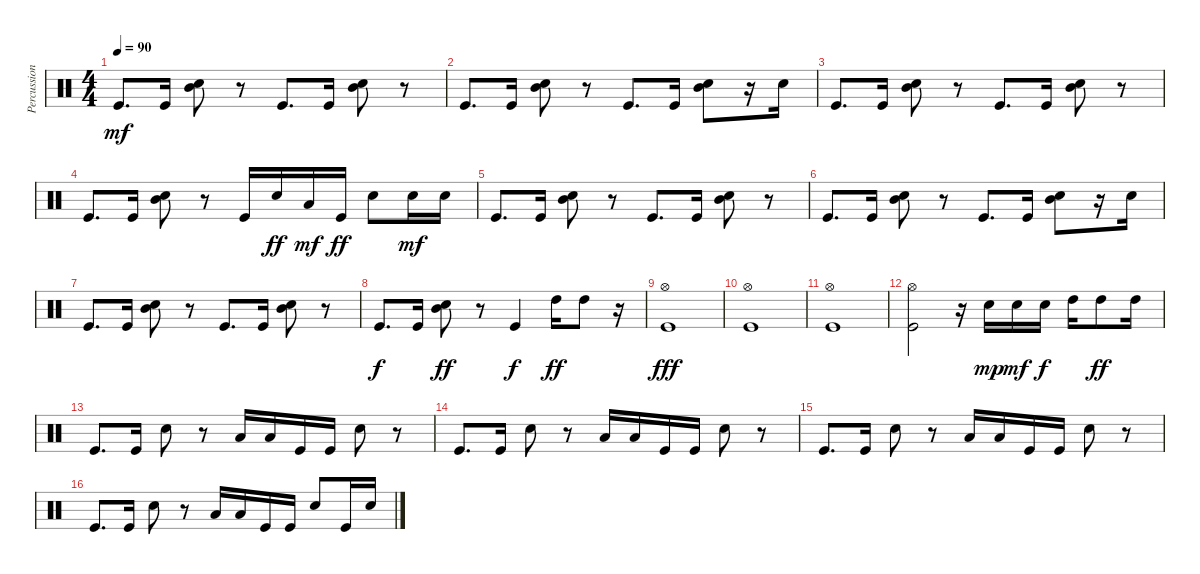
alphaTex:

\track ("Percussion" "Percussion") {instrument percussion}
\staff {score}
\articulation defaults
\ts (4 4)
\tempo 90
\clef neutral
\ks c "Kick (hit)".8{d dy mf} "Kick (hit)".16
("Mid Tom (hit)" "Snare (hit) 2").8 r.8 "Kick (hit)".8{d} "Kick (hit)".16 ("Mid Tom (hit)" "Snare (hit) 2").8 r.8 |
"Kick (hit)".8{d} "Kick (hit)".16 ("Mid Tom (hit)" "Snare (hit) 2").8 r.8 "Kick (hit)".8{d} "Kick (hit)".16 ("Mid Tom (hit)" "Snare (hit) 2").8 r.16 "Snare (hit) 2".16 |
"Kick (hit)".8{d} "Kick (hit)".16 ("Mid Tom (hit)" "Snare (hit) 2").8 r.8 "Kick (hit)".8{d} "Kick (hit)".16 ("Mid Tom (hit)" "Snare (hit) 2").8 r.8 |
"Kick (hit)".8{d} "Kick (hit)".16 ("Mid Tom (hit)" "Snare (hit) 2").8 r.8 "Kick (hit)".16 "Snare (hit) 2".16{dy ff} "Low Floor Tom (hit)".16{dy mf} "Kick (hit)".16{dy ff} "Snare (hit) 2".8 "Snare (hit) 2".16{dy mf} "Snare (hit) 2".16 |
"Kick (hit)".8{d} "Kick (hit)".16 ("Mid Tom (hit)" "Snare (hit) 2").8 r.8 "Kick (hit)".8{d} "Kick (hit)".16 ("Mid Tom (hit)" "Snare (hit) 2").8 r.8 |
"Kick (hit)".8{d} "Kick (hit)".16 ("Mid Tom (hit)" "Snare (hit) 2").8 r.8 "Kick (hit)".8{d} "Kick (hit)".16 ("Mid Tom (hit)" "Snare (hit) 2").8 r.16 "Snare (hit) 2".16 |
"Kick (hit)".8{d} "Kick (hit)".16 ("Mid Tom (hit)" "Snare (hit) 2").8 r.8 "Kick (hit)".8{d} "Kick (hit)".16 ("Mid Tom (hit)" "Snare (hit) 2").8 r.8 |
"Kick (hit)".8{d dy f} "Kick (hit)".16 ("Mid Tom (hit)" "Snare (hit) 2").8{dy ff} r.8 "Kick (hit)".4{dy f} "High Tom (hit)".16{dy ff} "High Tom (hit)".8 r.16 |
("Hi-Hat (open)" "Kick (hit)").1{dy fff} |
("Hi-Hat (open)" "Kick (hit)").1 |
("Hi-Hat (open)" "Kick (hit)").1 |
("Kick (hit)" "Hi-Hat (open)").2 r.16 "Snare (hit) 2".16{dy mp} "Snare (hit) 2".16{dy mf} "Snare (hit) 2".16{dy f} "High Tom (hit)".16 "High Tom (hit)".8{dy ff} "High Tom (hit)".16 |
"Kick (hit)".8{d} "Kick (hit)".16 "Snare (hit) 2".8 r.8 "Low Floor Tom (hit)".16 "Low Floor Tom (hit)".16 "Kick (hit)".16 "Kick (hit)".16 "Snare (hit) 2".8 r.8 |
"Kick (hit)".8{d} "Kick (hit)".16 "Snare (hit) 2".8 r.8 "Low Floor Tom (hit)".16 "Low Floor Tom (hit)".16 "Kick (hit)".16 "Kick (hit)".16 "Snare (hit) 2".8 r.8 |
"Kick (hit)".8{d} "Kick (hit)".16 "Snare (hit) 2".8 r.8 "Low Floor Tom (hit)".16 "Low Floor Tom (hit)".16 "Kick (hit)".16 "Kick (hit)".16 "Snare (hit) 2".8 r.8 |
"Kick (hit)".8{d} "Kick (hit)".16 "Snare (hit) 2".8 r.8 "Low Floor Tom (hit)".16 "Low Floor Tom (hit)".16 "Kick (hit)".16 "Kick (hit)".16 "Snare (hit) 2".8 "Kick (hit)".16 "Snare (hit) 2".16
